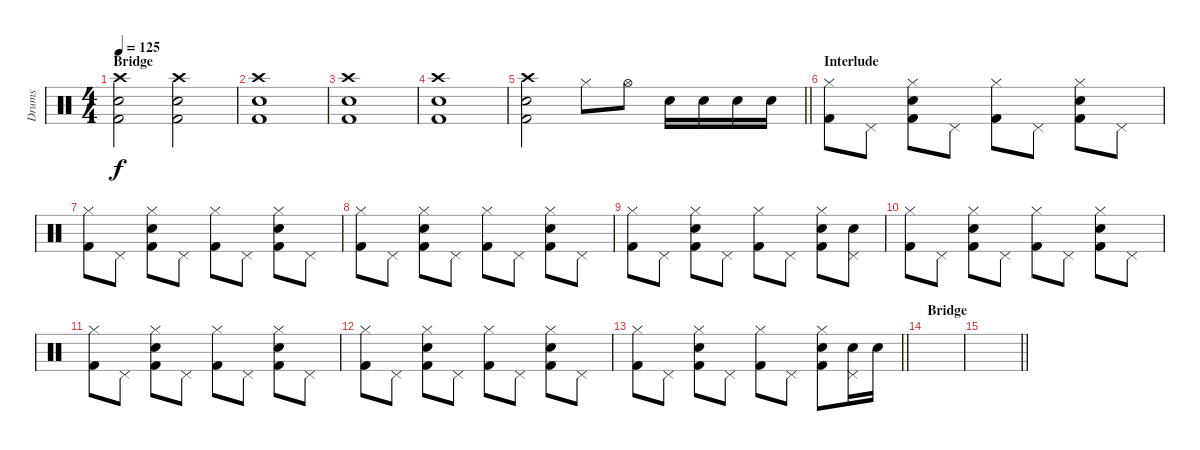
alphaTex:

\track ("Drums" "Drums") {instrument percussion}
\staff {score}
\articulation defaults
\ts (4 4)
\section ("" "Bridge")
\tempo 125
\clef neutral
\ks c
("Crash high (hit)" "Snare (hit) 2" "Kick (hit) 2").2{dy f} ("Crash high (hit)" "Snare (hit) 2" "Kick (hit) 2").2 |
("Crash high (hit)" "Snare (hit) 2" "Kick (hit) 2").1 |
("Crash high (hit)" "Snare (hit) 2" "Kick (hit) 2").1 |
("Crash high (hit)" "Snare (hit) 2" "Kick (hit) 2").1 |
\barLineRight lightlight
("Crash high (hit)" "Snare (hit) 2" "Kick (hit) 2").2 "Hi-Hat (closed)".8 "Hi-Hat (open)".8 "Snare (hit) 2".16 "Snare (hit) 2".16 "Snare (hit) 2".16 "Snare (hit) 2".16 |
\section ("" "Interlude")
("Hi-Hat (closed)" "Kick (hit) 2").8 "Pedal Hi-Hat (hit)".8 ("Hi-Hat (closed)" "Snare (hit) 2" "Kick (hit) 2").8 "Pedal Hi-Hat (hit)".8 ("Hi-Hat (closed)" "Kick (hit) 2").8 "Pedal Hi-Hat (hit)".8 ("Hi-Hat (closed)" "Snare (hit) 2" "Kick (hit) 2").8 "Pedal Hi-Hat (hit)".8 |
("Hi-Hat (closed)" "Kick (hit) 2").8 "Pedal Hi-Hat (hit)".8 ("Hi-Hat (closed)" "Snare (hit) 2" "Kick (hit) 2").8 "Pedal Hi-Hat (hit)".8 ("Hi-Hat (closed)" "Kick (hit) 2").8 "Pedal Hi-Hat (hit)".8 ("Hi-Hat (closed)" "Snare (hit) 2" "Kick (hit) 2").8 "Pedal Hi-Hat (hit)".8 |
("Hi-Hat (closed)" "Kick (hit) 2").8 "Pedal Hi-Hat (hit)".8 ("Hi-Hat (closed)" "Snare (hit) 2" "Kick (hit) 2").8 "Pedal Hi-Hat (hit)".8 ("Hi-Hat (closed)" "Kick (hit) 2").8 "Pedal Hi-Hat (hit)".8 ("Hi-Hat (closed)" "Snare (hit) 2" "Kick (hit) 2").8 "Pedal Hi-Hat (hit)".8 |
("Hi-Hat (closed)" "Kick (hit) 2").8 "Pedal Hi-Hat (hit)".8 ("Hi-Hat (closed)" "Snare (hit) 2" "Kick (hit) 2").8 "Pedal Hi-Hat (hit)".8 ("Hi-Hat (closed)" "Kick (hit) 2").8 "Pedal Hi-Hat (hit)".8 ("Hi-Hat (closed)" "Snare (hit) 2" "Kick (hit) 2").8 ("Pedal Hi-Hat (hit)" "Snare (hit) 2").8 |
("Hi-Hat (closed)" "Kick (hit) 2").8 "Pedal Hi-Hat (hit)".8 ("Hi-Hat (closed)" "Snare (hit) 2" "Kick (hit) 2").8 "Pedal Hi-Hat (hit)".8 ("Hi-Hat (closed)" "Kick (hit) 2").8 "Pedal Hi-Hat (hit)".8 ("Hi-Hat (closed)" "Snare (hit) 2" "Kick (hit) 2").8 "Pedal Hi-Hat (hit)".8 |
("Hi-Hat (closed)" "Kick (hit) 2").8 "Pedal Hi-Hat (hit)".8 ("Hi-Hat (closed)" "Snare (hit) 2" "Kick (hit) 2").8 "Pedal Hi-Hat (hit)".8 ("Hi-Hat (closed)" "Kick (hit) 2").8 "Pedal Hi-Hat (hit)".8 ("Hi-Hat (closed)" "Snare (hit) 2" "Kick (hit) 2").8 "Pedal Hi-Hat (hit)".8 |
("Hi-Hat (closed)" "Kick (hit) 2").8 "Pedal Hi-Hat (hit)".8 ("Hi-Hat (closed)" "Snare (hit) 2" "Kick (hit) 2").8 "Pedal Hi-Hat (hit)".8 ("Hi-Hat (closed)" "Kick (hit) 2").8 "Pedal Hi-Hat (hit)".8 ("Hi-Hat (closed)" "Snare (hit) 2" "Kick (hit) 2").8 "Pedal Hi-Hat (hit)".8 |
\barLineRight lightlight
("Hi-Hat (closed)" "Kick (hit) 2").8 "Pedal Hi-Hat (hit)".8 ("Hi-Hat (closed)" "Snare (hit) 2" "Kick (hit) 2").8 "Pedal Hi-Hat (hit)".8 ("Hi-Hat (closed)" "Kick (hit) 2").8 "Pedal Hi-Hat (hit)".8 ("Hi-Hat (closed)" "Snare (hit) 2" "Kick (hit) 2").8 ("Pedal Hi-Hat (hit)" "Snare (hit) 2").16 "Snare (hit) 2".16 |
\section ("" "Bridge")
|
\barLineRight lightlight
